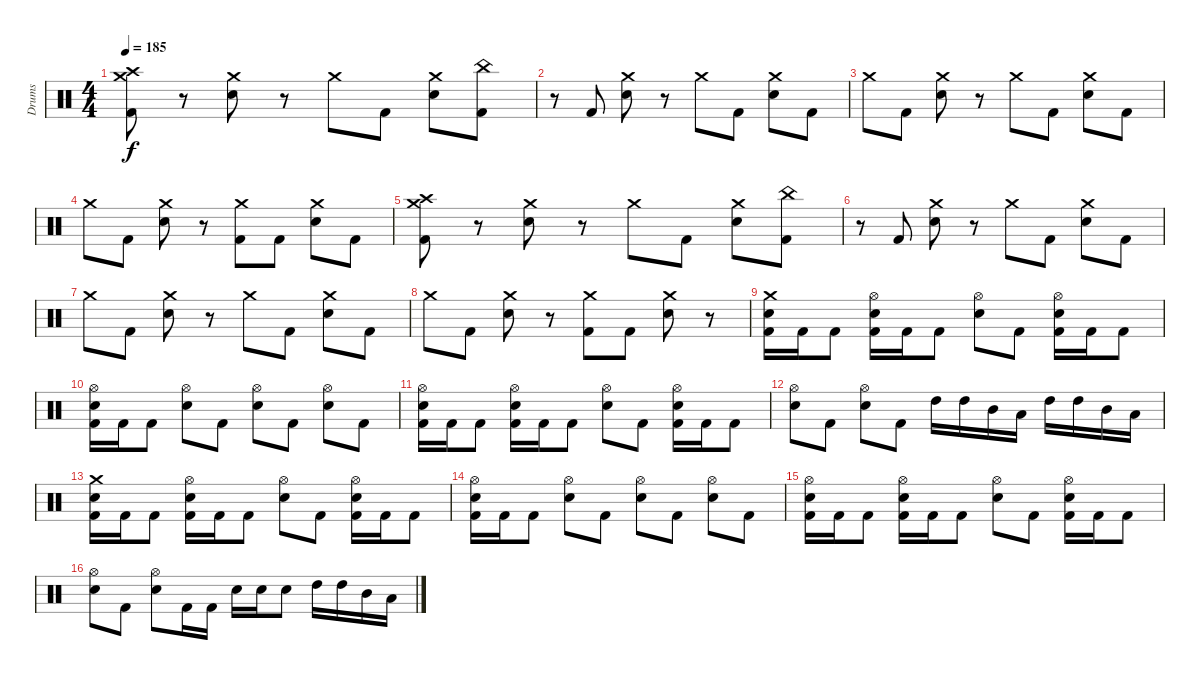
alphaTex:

\track ("Drums" "Drums") {solo instrument percussion}
\staff {score}
\articulation defaults
\ts (4 4)
\tempo 185
\clef neutral
\ks c
("Crash medium (hit)" "Crash high (hit)" "Kick (hit) 2").8{dy f} r.8 ("Crash medium (hit)" "Snare (hit) 2").8 r.8 "Crash medium (hit)".8 "Kick (hit) 2".8 ("Crash medium (hit)" "Snare (hit) 2").8 ("China (hit)" "Kick (hit) 2").8 |
r.8 "Kick (hit) 2".8 ("Crash medium (hit)" "Snare (hit) 2").8 r.8 "Crash medium (hit)".8 "Kick (hit) 2".8 ("Crash medium (hit)" "Snare (hit) 2").8 "Kick (hit) 2".8 |
"Crash medium (hit)".8 "Kick (hit) 2".8 ("Crash medium (hit)" "Snare (hit) 2").8 r.8 "Crash medium (hit)".8 "Kick (hit) 2".8 ("Crash medium (hit)" "Snare (hit) 2").8 "Kick (hit) 2".8 |
"Crash medium (hit)".8 "Kick (hit) 2".8 ("Crash medium (hit)" "Snare (hit) 2").8 r.8 ("Crash medium (hit)" "Kick (hit) 2").8 "Kick (hit) 2".8 ("Crash medium (hit)" "Snare (hit) 2").8 "Kick (hit) 2".8 |
("Crash medium (hit)" "Crash high (hit)" "Kick (hit) 2").8 r.8 ("Crash medium (hit)" "Snare (hit) 2").8 r.8 "Crash medium (hit)".8 "Kick (hit) 2".8 ("Crash medium (hit)" "Snare (hit) 2").8 ("China (hit)" "Kick (hit) 2").8 |
r.8 "Kick (hit) 2".8 ("Crash medium (hit)" "Snare (hit) 2").8 r.8 "Crash medium (hit)".8 "Kick (hit) 2".8 ("Crash medium (hit)" "Snare (hit) 2").8 "Kick (hit) 2".8 |
"Crash medium (hit)".8 "Kick (hit) 2".8 ("Crash medium (hit)" "Snare (hit) 2").8 r.8 "Crash medium (hit)".8 "Kick (hit) 2".8 ("Crash medium (hit)" "Snare (hit) 2").8 "Kick (hit) 2".8 |
"Crash medium (hit)".8 "Kick (hit) 2".8 ("Crash medium (hit)" "Snare (hit) 2").8 r.8 ("Crash medium (hit)" "Kick (hit) 2").8 "Kick (hit) 2".8 ("Crash medium (hit)" "Snare (hit) 2").8 r.8 |
("Snare (hit) 2" "Crash medium (hit)" "Kick (hit) 2").16 "Kick (hit) 2".16 "Kick (hit) 2".8 ("Snare (hit) 2" "Hi-Hat (open)" "Kick (hit) 2").16 "Kick (hit) 2".16 "Kick (hit) 2".8 ("Snare (hit) 2" "Hi-Hat (open)").8 "Kick (hit) 2".8 ("Snare (hit) 2" "Hi-Hat (open)" "Kick (hit) 2").16 "Kick (hit) 2".16 "Kick (hit) 2".8 |
("Snare (hit) 2" "Hi-Hat (open)" "Kick (hit) 2").16 "Kick (hit) 2".16 "Kick (hit) 2".8 ("Snare (hit) 2" "Hi-Hat (open)").8 "Kick (hit) 2".8 ("Snare (hit) 2" "Hi-Hat (open)").8 "Kick (hit) 2".8 ("Snare (hit) 2" "Hi-Hat (open)").8 "Kick (hit) 2".8 |
("Snare (hit) 2" "Hi-Hat (open)" "Kick (hit) 2").16 "Kick (hit) 2".16 "Kick (hit) 2".8 ("Snare (hit) 2" "Hi-Hat (open)" "Kick (hit) 2").16 "Kick (hit) 2".16 "Kick (hit) 2".8 ("Snare (hit) 2" "Hi-Hat (open)").8 "Kick (hit) 2".8 ("Snare (hit) 2" "Hi-Hat (open)" "Kick (hit) 2").16 "Kick (hit) 2".16 "Kick (hit) 2".8 |
("Snare (hit) 2" "Hi-Hat (open)").8 "Kick (hit) 2".8 ("Snare (hit) 2" "Hi-Hat (open)").8 "Kick (hit) 2".8 "High Tom (hit)".16 "High Tom (hit)".16 "Mid Tom (hit)".16 "Low Tom (hit)".16 "High Tom (hit)".16 "High Tom (hit)".16 "Mid Tom (hit)".16 "Low Tom (hit)".16 |
("Snare (hit) 2" "Crash medium (hit)" "Kick (hit) 2").16 "Kick (hit) 2".16 "Kick (hit) 2".8 ("Snare (hit) 2" "Hi-Hat (open)" "Kick (hit) 2").16 "Kick (hit) 2".16 "Kick (hit) 2".8 ("Snare (hit) 2" "Hi-Hat (open)").8 "Kick (hit) 2".8 ("Snare (hit) 2" "Hi-Hat (open)" "Kick (hit) 2").16 "Kick (hit) 2".16 "Kick (hit) 2".8 |
("Snare (hit) 2" "Hi-Hat (open)" "Kick (hit) 2").16 "Kick (hit) 2".16 "Kick (hit) 2".8 ("Snare (hit) 2" "Hi-Hat (open)").8 "Kick (hit) 2".8 ("Snare (hit) 2" "Hi-Hat (open)").8 "Kick (hit) 2".8 ("Snare (hit) 2" "Hi-Hat (open)").8 "Kick (hit) 2".8 |
("Snare (hit) 2" "Hi-Hat (open)" "Kick (hit) 2").16 "Kick (hit) 2".16 "Kick (hit) 2".8 ("Snare (hit) 2" "Hi-Hat (open)" "Kick (hit) 2").16 "Kick (hit) 2".16 "Kick (hit) 2".8 ("Snare (hit) 2" "Hi-Hat (open)").8 "Kick (hit) 2".8 ("Snare (hit) 2" "Hi-Hat (open)" "Kick (hit) 2").16 "Kick (hit) 2".16 "Kick (hit) 2".8 |
("Snare (hit) 2" "Hi-Hat (open)").8 "Kick (hit) 2".8 ("Snare (hit) 2" "Hi-Hat (open)").8 "Kick (hit) 2".16 "Kick (hit) 2".16 "Snare (hit) 2".16 "Snare (hit) 2".16 "Snare (hit) 2".8 "High Tom (hit)".16 "High Tom (hit)".16 "Mid Tom (hit)".16 "Low Tom (hit)".16
